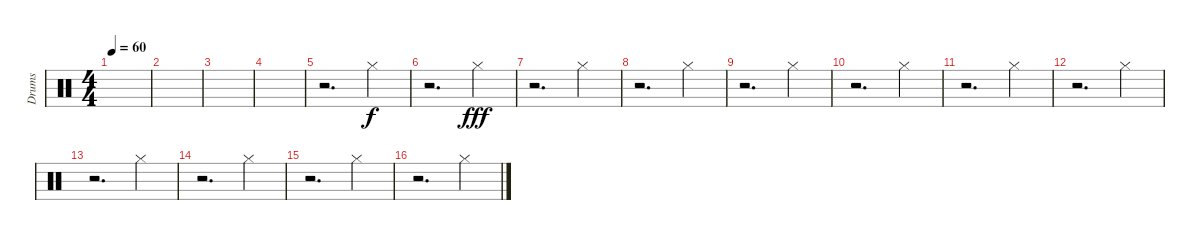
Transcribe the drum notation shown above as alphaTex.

\track ("Drums" "Drums") {instrument percussion}
\staff {score}
\articulation defaults
\ts (4 4)
\tempo 60
\clef neutral
\ks c
|
|
|
|
r.2{d} "Hi-Hat (closed)".4 |
r.2{d} "Hi-Hat (closed)".4{dy fff} |
r.2{d} "Hi-Hat (closed)".4 |
r.2{d} "Hi-Hat (closed)".4 |
r.2{d} "Hi-Hat (closed)".4 |
r.2{d} "Hi-Hat (closed)".4 |
r.2{d} "Hi-Hat (closed)".4 |
r.2{d} "Hi-Hat (closed)".4 |
r.2{d} "Hi-Hat (closed)".4 |
r.2{d} "Hi-Hat (closed)".4 |
r.2{d} "Hi-Hat (closed)".4 |
r.2{d} "Hi-Hat (closed)".4
